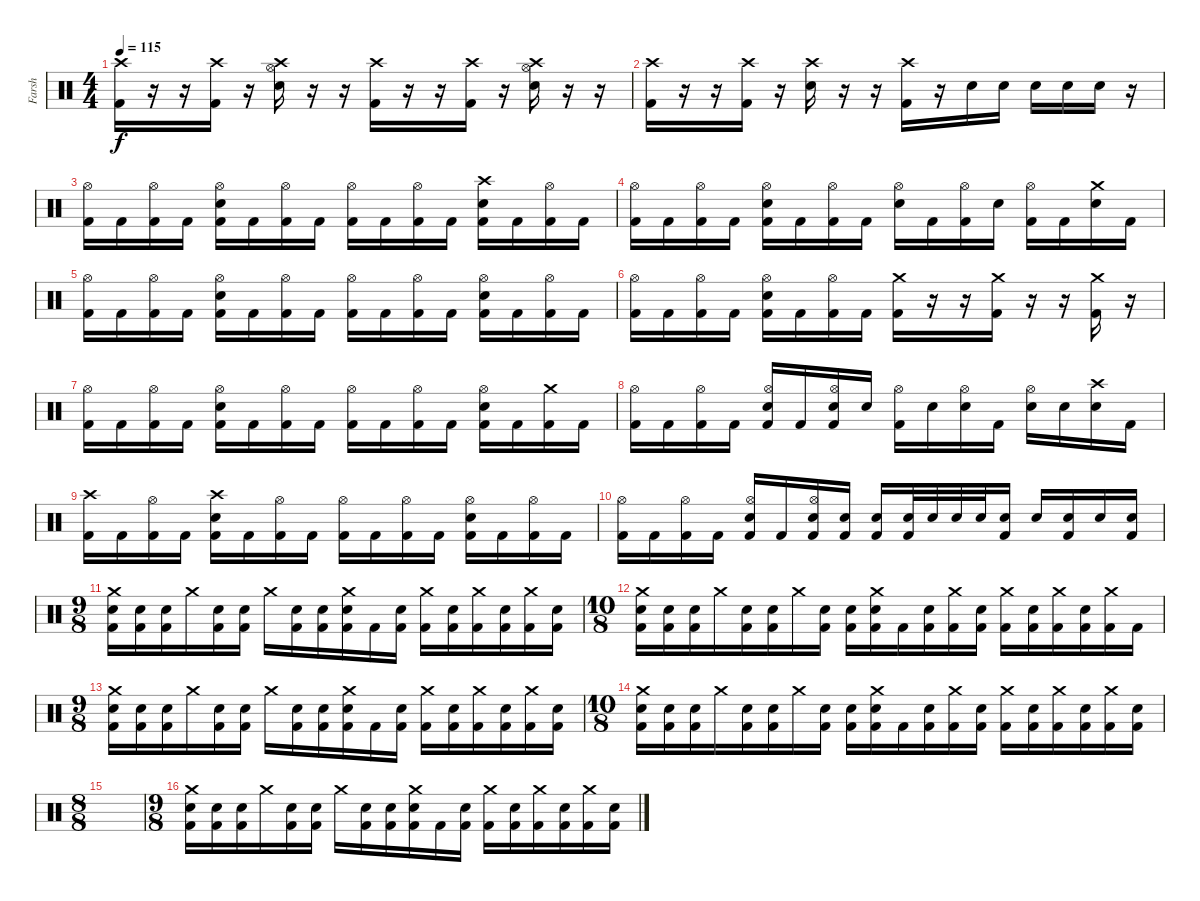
\track ("Farsh" "Farsh") {instrument percussion}
\staff {score}
\articulation defaults
\ts (4 4)
\tempo 115
\clef neutral
\ks c
("Crash high (hit)" "Kick (hit) 2").16{dy f} r.16 r.16 ("Crash high (hit)" "Kick (hit) 2").16 r.16 ("Crash high (hit)" "Hi-Hat (open)" "Electric Snare (hit)").16 r.16 r.16 ("Crash high (hit)" "Kick (hit) 2").16 r.16 r.16 ("Crash high (hit)" "Kick (hit) 2").16 r.16 ("Crash high (hit)" "Hi-Hat (open)" "Electric Snare (hit)").16 r.16 r.16 |
("Crash high (hit)" "Kick (hit) 2").16 r.16 r.16 ("Crash high (hit)" "Kick (hit) 2").16 r.16 ("Crash high (hit)" "Electric Snare (hit)").16 r.16 r.16 ("Crash high (hit)" "Kick (hit) 2").16 r.16 "Electric Snare (hit)".16 "Electric Snare (hit)".16 "Electric Snare (hit)".16 "Electric Snare (hit)".16 "Electric Snare (hit)".16 r.16 |
("Hi-Hat (open)" "Kick (hit) 2").16 "Kick (hit) 2".16 ("Hi-Hat (open)" "Kick (hit) 2").16 "Kick (hit) 2".16 ("Hi-Hat (open)" "Electric Snare (hit)" "Kick (hit) 2").16 "Kick (hit) 2".16 ("Hi-Hat (open)" "Kick (hit) 2").16 "Kick (hit) 2".16 ("Hi-Hat (open)" "Kick (hit) 2").16 "Kick (hit) 2".16 ("Hi-Hat (open)" "Kick (hit) 2").16 "Kick (hit) 2".16 ("Crash high (hit)" "Electric Snare (hit)" "Kick (hit) 2").16 "Kick (hit) 2".16 ("Hi-Hat (open)" "Kick (hit) 2").16 "Kick (hit) 2".16 |
("Hi-Hat (open)" "Kick (hit) 2").16 "Kick (hit) 2".16 ("Hi-Hat (open)" "Kick (hit) 2").16 "Kick (hit) 2".16 ("Hi-Hat (open)" "Electric Snare (hit)" "Kick (hit) 2").16 "Kick (hit) 2".16 ("Hi-Hat (open)" "Kick (hit) 2").16 "Kick (hit) 2".16 ("Hi-Hat (open)" "Electric Snare (hit)").16 "Kick (hit) 2".16 ("Hi-Hat (open)" "Kick (hit) 2").16 "Electric Snare (hit)".16 ("Hi-Hat (open)" "Kick (hit) 2").16 "Kick (hit) 2".16 ("Crash medium (hit)" "Electric Snare (hit)").16 "Kick (hit) 2".16 |
("Hi-Hat (open)" "Kick (hit) 2").16 "Kick (hit) 2".16 ("Hi-Hat (open)" "Kick (hit) 2").16 "Kick (hit) 2".16 ("Hi-Hat (open)" "Electric Snare (hit)" "Kick (hit) 2").16 "Kick (hit) 2".16 ("Hi-Hat (open)" "Kick (hit) 2").16 "Kick (hit) 2".16 ("Hi-Hat (open)" "Kick (hit) 2").16 "Kick (hit) 2".16 ("Hi-Hat (open)" "Kick (hit) 2").16 "Kick (hit) 2".16 ("Hi-Hat (open)" "Electric Snare (hit)" "Kick (hit) 2").16 "Kick (hit) 2".16 ("Hi-Hat (open)" "Kick (hit) 2").16 "Kick (hit) 2".16 |
("Hi-Hat (open)" "Kick (hit) 2").16 "Kick (hit) 2".16 ("Hi-Hat (open)" "Kick (hit) 2").16 "Kick (hit) 2".16 ("Hi-Hat (open)" "Electric Snare (hit)" "Kick (hit) 2").16 "Kick (hit) 2".16 ("Hi-Hat (open)" "Kick (hit) 2").16 "Kick (hit) 2".16 ("Crash medium (hit)" "Kick (hit) 2").16 r.16 r.16 ("Crash medium (hit)" "Kick (hit) 2").16 r.16 r.16 ("Crash medium (hit)" "Kick (hit) 2").16 r.16 |
("Hi-Hat (open)" "Kick (hit) 2").16 "Kick (hit) 2".16 ("Hi-Hat (open)" "Kick (hit) 2").16 "Kick (hit) 2".16 ("Hi-Hat (open)" "Electric Snare (hit)" "Kick (hit) 2").16 "Kick (hit) 2".16 ("Hi-Hat (open)" "Kick (hit) 2").16 "Kick (hit) 2".16 ("Hi-Hat (open)" "Kick (hit) 2").16 "Kick (hit) 2".16 ("Hi-Hat (open)" "Kick (hit) 2").16 "Kick (hit) 2".16 ("Hi-Hat (open)" "Electric Snare (hit)" "Kick (hit) 2").16 "Kick (hit) 2".16 ("Crash medium (hit)" "Kick (hit) 2").16 "Kick (hit) 2".16 |
("Hi-Hat (open)" "Kick (hit) 2").16 "Kick (hit) 2".16 ("Hi-Hat (open)" "Kick (hit) 2").16 "Kick (hit) 2".16 ("Hi-Hat (open)" "Electric Snare (hit)" "Kick (hit) 2").16 "Kick (hit) 2".16 ("Hi-Hat (open)" "Electric Snare (hit)" "Kick (hit) 2").16 "Electric Snare (hit)".16 ("Hi-Hat (open)" "Kick (hit) 2").16 "Electric Snare (hit)".16 ("Hi-Hat (open)" "Electric Snare (hit)").16 "Kick (hit) 2".16 ("Hi-Hat (open)" "Electric Snare (hit)").16 "Electric Snare (hit)".16 ("Crash high (hit)" "Electric Snare (hit)").16 "Kick (hit) 2".16 |
("Crash high (hit)" "Kick (hit) 2").16 "Kick (hit) 2".16 ("Hi-Hat (open)" "Kick (hit) 2").16 "Kick (hit) 2".16 ("Crash high (hit)" "Electric Snare (hit)" "Kick (hit) 2").16 "Kick (hit) 2".16 ("Hi-Hat (open)" "Kick (hit) 2").16 "Kick (hit) 2".16 ("Hi-Hat (open)" "Kick (hit) 2").16 "Kick (hit) 2".16 ("Hi-Hat (open)" "Kick (hit) 2").16 "Kick (hit) 2".16 ("Hi-Hat (open)" "Electric Snare (hit)" "Kick (hit) 2").16 "Kick (hit) 2".16 ("Hi-Hat (open)" "Kick (hit) 2").16 "Kick (hit) 2".16 |
("Hi-Hat (open)" "Kick (hit) 2").16 "Kick (hit) 2".16 ("Hi-Hat (open)" "Kick (hit) 2").16 "Kick (hit) 2".16 ("Hi-Hat (open)" "Electric Snare (hit)" "Kick (hit) 2").16 "Kick (hit) 2".16 ("Hi-Hat (open)" "Electric Snare (hit)" "Kick (hit) 2").16 ("Electric Snare (hit)" "Kick (hit) 2").16 ("Electric Snare (hit)" "Kick (hit) 2").16 ("Electric Snare (hit)" "Kick (hit) 2").32 "Electric Snare (hit)".32 "Electric Snare (hit)".32 "Electric Snare (hit)".32 ("Electric Snare (hit)" "Kick (hit) 2").16 "Electric Snare (hit)".16 ("Electric Snare (hit)" "Kick (hit) 2").16 "Electric Snare (hit)".16 ("Electric Snare (hit)" "Kick (hit) 2").16 |
\ts (9 8)
("Crash medium (hit)" "Electric Snare (hit)" "Kick (hit) 2").16 ("Electric Snare (hit)" "Kick (hit) 2").16 ("Electric Snare (hit)" "Kick (hit) 2").16 "Crash medium (hit)".16 ("Electric Snare (hit)" "Kick (hit) 2").16 ("Electric Snare (hit)" "Kick (hit) 2").16 "Crash medium (hit)".16 ("Electric Snare (hit)" "Kick (hit) 2").16 ("Electric Snare (hit)" "Kick (hit) 2").16 ("Crash medium (hit)" "Electric Snare (hit)" "Kick (hit) 2").16 "Kick (hit) 2".16 ("Electric Snare (hit)" "Kick (hit) 2").16 ("Crash medium (hit)" "Kick (hit) 2").16 ("Electric Snare (hit)" "Kick (hit) 2").16 ("Crash medium (hit)" "Kick (hit) 2").16 ("Electric Snare (hit)" "Kick (hit) 2").16 ("Crash medium (hit)" "Kick (hit) 2").16 ("Electric Snare (hit)" "Kick (hit) 2").16 |
\ts (10 8)
("Crash medium (hit)" "Electric Snare (hit)" "Kick (hit) 2").16 ("Electric Snare (hit)" "Kick (hit) 2").16 ("Electric Snare (hit)" "Kick (hit) 2").16 "Crash medium (hit)".16 ("Electric Snare (hit)" "Kick (hit) 2").16 ("Electric Snare (hit)" "Kick (hit) 2").16 "Crash medium (hit)".16 ("Electric Snare (hit)" "Kick (hit) 2").16 ("Electric Snare (hit)" "Kick (hit) 2").16 ("Crash medium (hit)" "Electric Snare (hit)" "Kick (hit) 2").16 "Kick (hit) 2".16 ("Electric Snare (hit)" "Kick (hit) 2").16 ("Crash medium (hit)" "Kick (hit) 2").16 ("Electric Snare (hit)" "Kick (hit) 2").16 ("Crash medium (hit)" "Kick (hit) 2").16 ("Electric Snare (hit)" "Kick (hit) 2").16 ("Crash medium (hit)" "Kick (hit) 2").16 ("Electric Snare (hit)" "Kick (hit) 2").16 ("Crash medium (hit)" "Kick (hit) 2").16 "Kick (hit) 2".16 |
\ts (9 8)
("Crash medium (hit)" "Electric Snare (hit)" "Kick (hit) 2").16 ("Electric Snare (hit)" "Kick (hit) 2").16 ("Electric Snare (hit)" "Kick (hit) 2").16 "Crash medium (hit)".16 ("Electric Snare (hit)" "Kick (hit) 2").16 ("Electric Snare (hit)" "Kick (hit) 2").16 "Crash medium (hit)".16 ("Electric Snare (hit)" "Kick (hit) 2").16 ("Electric Snare (hit)" "Kick (hit) 2").16 ("Crash medium (hit)" "Electric Snare (hit)" "Kick (hit) 2").16 "Kick (hit) 2".16 ("Electric Snare (hit)" "Kick (hit) 2").16 ("Crash medium (hit)" "Kick (hit) 2").16 ("Electric Snare (hit)" "Kick (hit) 2").16 ("Crash medium (hit)" "Kick (hit) 2").16 ("Electric Snare (hit)" "Kick (hit) 2").16 ("Crash medium (hit)" "Kick (hit) 2").16 ("Electric Snare (hit)" "Kick (hit) 2").16 |
\ts (10 8)
("Crash medium (hit)" "Electric Snare (hit)" "Kick (hit) 2").16 ("Electric Snare (hit)" "Kick (hit) 2").16 ("Electric Snare (hit)" "Kick (hit) 2").16 "Crash medium (hit)".16 ("Electric Snare (hit)" "Kick (hit) 2").16 ("Electric Snare (hit)" "Kick (hit) 2").16 "Crash medium (hit)".16 ("Electric Snare (hit)" "Kick (hit) 2").16 ("Electric Snare (hit)" "Kick (hit) 2").16 ("Crash medium (hit)" "Electric Snare (hit)" "Kick (hit) 2").16 "Kick (hit) 2".16 ("Electric Snare (hit)" "Kick (hit) 2").16 ("Crash medium (hit)" "Kick (hit) 2").16 ("Electric Snare (hit)" "Kick (hit) 2").16 ("Crash medium (hit)" "Kick (hit) 2").16 ("Electric Snare (hit)" "Kick (hit) 2").16 ("Crash medium (hit)" "Kick (hit) 2").16 ("Electric Snare (hit)" "Kick (hit) 2").16 ("Crash medium (hit)" "Kick (hit) 2").16 ("Electric Snare (hit)" "Kick (hit) 2").16 |
\ts (8 8)
|
\ts (9 8)
("Crash medium (hit)" "Electric Snare (hit)" "Kick (hit) 2").16 ("Electric Snare (hit)" "Kick (hit) 2").16 ("Electric Snare (hit)" "Kick (hit) 2").16 "Crash medium (hit)".16 ("Electric Snare (hit)" "Kick (hit) 2").16 ("Electric Snare (hit)" "Kick (hit) 2").16 "Crash medium (hit)".16 ("Electric Snare (hit)" "Kick (hit) 2").16 ("Electric Snare (hit)" "Kick (hit) 2").16 ("Crash medium (hit)" "Electric Snare (hit)" "Kick (hit) 2").16 "Kick (hit) 2".16 ("Electric Snare (hit)" "Kick (hit) 2").16 ("Crash medium (hit)" "Kick (hit) 2").16 ("Electric Snare (hit)" "Kick (hit) 2").16 ("Crash medium (hit)" "Kick (hit) 2").16 ("Electric Snare (hit)" "Kick (hit) 2").16 ("Crash medium (hit)" "Kick (hit) 2").16 ("Electric Snare (hit)" "Kick (hit) 2").16
